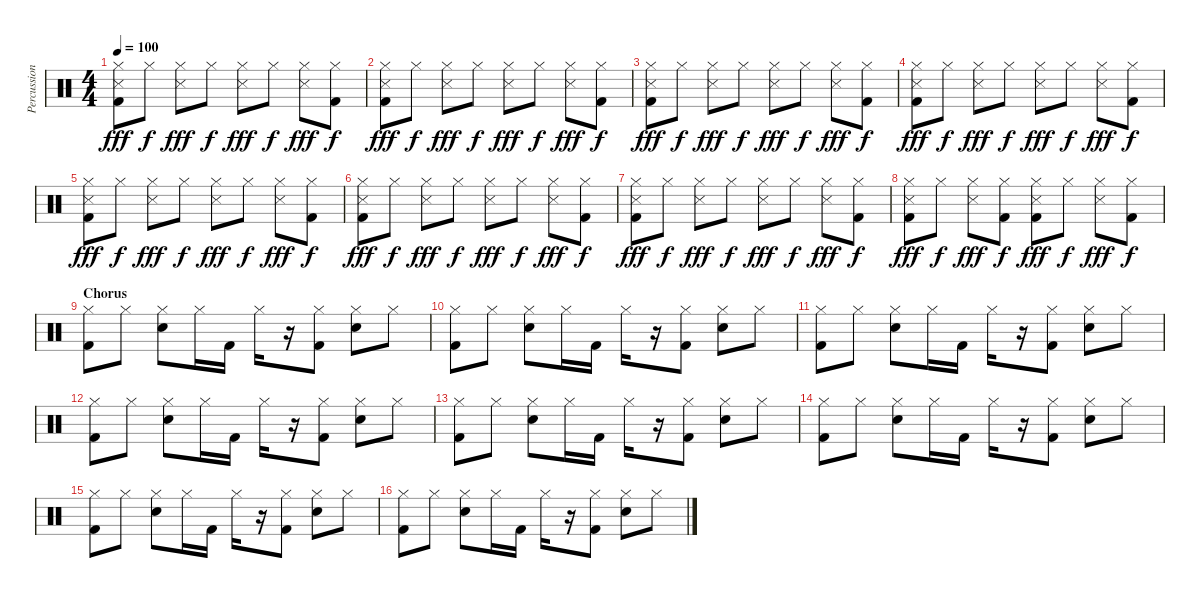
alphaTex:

\track ("Percussion" "Percussion") {instrument percussion}
\staff {score}
\articulation defaults
\ts (4 4)
\tempo 100
\clef neutral
\ks c
("Hi-Hat (closed)" "Snare (side stick) 3" "Kick (hit) 2").8{dy fff} "Hi-Hat (closed)".8{dy f} ("Hi-Hat (closed)" "Snare (side stick) 3").8{dy fff} "Hi-Hat (closed)".8{dy f} ("Snare (side stick) 3" "Hi-Hat (closed)").8{dy fff} "Hi-Hat (closed)".8{dy f} ("Hi-Hat (closed)" "Snare (side stick) 3").8{dy fff} ("Hi-Hat (closed)" "Kick (hit) 2").8{dy f} |
("Hi-Hat (closed)" "Snare (side stick) 3" "Kick (hit) 2").8{dy fff} "Hi-Hat (closed)".8{dy f} ("Hi-Hat (closed)" "Snare (side stick) 3").8{dy fff} "Hi-Hat (closed)".8{dy f} ("Snare (side stick) 3" "Hi-Hat (closed)").8{dy fff} "Hi-Hat (closed)".8{dy f} ("Hi-Hat (closed)" "Snare (side stick) 3").8{dy fff} ("Hi-Hat (closed)" "Kick (hit) 2").8{dy f} |
("Hi-Hat (closed)" "Snare (side stick) 3" "Kick (hit) 2").8{dy fff} "Hi-Hat (closed)".8{dy f} ("Hi-Hat (closed)" "Snare (side stick) 3").8{dy fff} "Hi-Hat (closed)".8{dy f} ("Snare (side stick) 3" "Hi-Hat (closed)").8{dy fff} "Hi-Hat (closed)".8{dy f} ("Hi-Hat (closed)" "Snare (side stick) 3").8{dy fff} ("Hi-Hat (closed)" "Kick (hit) 2").8{dy f} |
("Hi-Hat (closed)" "Snare (side stick) 3" "Kick (hit) 2").8{dy fff} "Hi-Hat (closed)".8{dy f} ("Hi-Hat (closed)" "Snare (side stick) 3").8{dy fff} "Hi-Hat (closed)".8{dy f} ("Snare (side stick) 3" "Hi-Hat (closed)").8{dy fff} "Hi-Hat (closed)".8{dy f} ("Hi-Hat (closed)" "Snare (side stick) 3").8{dy fff} ("Hi-Hat (closed)" "Kick (hit) 2").8{dy f} |
("Hi-Hat (closed)" "Snare (side stick) 3" "Kick (hit) 2").8{dy fff} "Hi-Hat (closed)".8{dy f} ("Hi-Hat (closed)" "Snare (side stick) 3").8{dy fff} "Hi-Hat (closed)".8{dy f} ("Snare (side stick) 3" "Hi-Hat (closed)").8{dy fff} "Hi-Hat (closed)".8{dy f} ("Hi-Hat (closed)" "Snare (side stick) 3").8{dy fff} ("Hi-Hat (closed)" "Kick (hit) 2").8{dy f} |
("Hi-Hat (closed)" "Snare (side stick) 3" "Kick (hit) 2").8{dy fff} "Hi-Hat (closed)".8{dy f} ("Hi-Hat (closed)" "Snare (side stick) 3").8{dy fff} "Hi-Hat (closed)".8{dy f} ("Snare (side stick) 3" "Hi-Hat (closed)").8{dy fff} "Hi-Hat (closed)".8{dy f} ("Hi-Hat (closed)" "Snare (side stick) 3").8{dy fff} ("Hi-Hat (closed)" "Kick (hit) 2").8{dy f} |
("Hi-Hat (closed)" "Snare (side stick) 3" "Kick (hit) 2").8{dy fff} "Hi-Hat (closed)".8{dy f} ("Hi-Hat (closed)" "Snare (side stick) 3").8{dy fff} "Hi-Hat (closed)".8{dy f} ("Snare (side stick) 3" "Hi-Hat (closed)").8{dy fff} "Hi-Hat (closed)".8{dy f} ("Hi-Hat (closed)" "Snare (side stick) 3").8{dy fff} ("Hi-Hat (closed)" "Kick (hit) 2").8{dy f} |
("Hi-Hat (closed)" "Snare (side stick) 3" "Kick (hit) 2").8{dy fff} "Hi-Hat (closed)".8{dy f} ("Hi-Hat (closed)" "Snare (side stick) 3").8{dy fff} ("Hi-Hat (closed)" "Kick (hit) 2").8{dy f} ("Snare (side stick) 3" "Hi-Hat (closed)" "Kick (hit) 2").8{dy fff} "Hi-Hat (closed)".8{dy f} ("Hi-Hat (closed)" "Snare (side stick) 3").8{dy fff} ("Hi-Hat (closed)" "Kick (hit) 2").8{dy f} |
\section ("" "Chorus")
("Hi-Hat (closed)" "Kick (hit) 2").8 "Hi-Hat (closed)".8 ("Hi-Hat (closed)" "Electric Snare (hit)").8 "Hi-Hat (closed)".16 "Kick (hit) 2".16 "Hi-Hat (closed)".16 r.16 ("Hi-Hat (closed)" "Kick (hit) 2").8 ("Hi-Hat (closed)" "Electric Snare (hit)").8 "Hi-Hat (closed)".8 |
("Hi-Hat (closed)" "Kick (hit) 2").8 "Hi-Hat (closed)".8 ("Hi-Hat (closed)" "Electric Snare (hit)").8 "Hi-Hat (closed)".16 "Kick (hit) 2".16 "Hi-Hat (closed)".16 r.16 ("Hi-Hat (closed)" "Kick (hit) 2").8 ("Hi-Hat (closed)" "Electric Snare (hit)").8 "Hi-Hat (closed)".8 |
("Hi-Hat (closed)" "Kick (hit) 2").8 "Hi-Hat (closed)".8 ("Hi-Hat (closed)" "Electric Snare (hit)").8 "Hi-Hat (closed)".16 "Kick (hit) 2".16 "Hi-Hat (closed)".16 r.16 ("Hi-Hat (closed)" "Kick (hit) 2").8 ("Hi-Hat (closed)" "Electric Snare (hit)").8 "Hi-Hat (closed)".8 |
("Hi-Hat (closed)" "Kick (hit) 2").8 "Hi-Hat (closed)".8 ("Hi-Hat (closed)" "Electric Snare (hit)").8 "Hi-Hat (closed)".16 "Kick (hit) 2".16 "Hi-Hat (closed)".16 r.16 ("Hi-Hat (closed)" "Kick (hit) 2").8 ("Hi-Hat (closed)" "Electric Snare (hit)").8 "Hi-Hat (closed)".8 |
("Hi-Hat (closed)" "Kick (hit) 2").8 "Hi-Hat (closed)".8 ("Hi-Hat (closed)" "Electric Snare (hit)").8 "Hi-Hat (closed)".16 "Kick (hit) 2".16 "Hi-Hat (closed)".16 r.16 ("Hi-Hat (closed)" "Kick (hit) 2").8 ("Hi-Hat (closed)" "Electric Snare (hit)").8 "Hi-Hat (closed)".8 |
("Hi-Hat (closed)" "Kick (hit) 2").8 "Hi-Hat (closed)".8 ("Hi-Hat (closed)" "Electric Snare (hit)").8 "Hi-Hat (closed)".16 "Kick (hit) 2".16 "Hi-Hat (closed)".16 r.16 ("Hi-Hat (closed)" "Kick (hit) 2").8 ("Hi-Hat (closed)" "Electric Snare (hit)").8 "Hi-Hat (closed)".8 |
("Hi-Hat (closed)" "Kick (hit) 2").8 "Hi-Hat (closed)".8 ("Hi-Hat (closed)" "Electric Snare (hit)").8 "Hi-Hat (closed)".16 "Kick (hit) 2".16 "Hi-Hat (closed)".16 r.16 ("Hi-Hat (closed)" "Kick (hit) 2").8 ("Hi-Hat (closed)" "Electric Snare (hit)").8 "Hi-Hat (closed)".8 |
("Hi-Hat (closed)" "Kick (hit) 2").8 "Hi-Hat (closed)".8 ("Hi-Hat (closed)" "Electric Snare (hit)").8 "Hi-Hat (closed)".16 "Kick (hit) 2".16 "Hi-Hat (closed)".16 r.16 ("Hi-Hat (closed)" "Kick (hit) 2").8 ("Hi-Hat (closed)" "Electric Snare (hit)").8 "Hi-Hat (closed)".8
